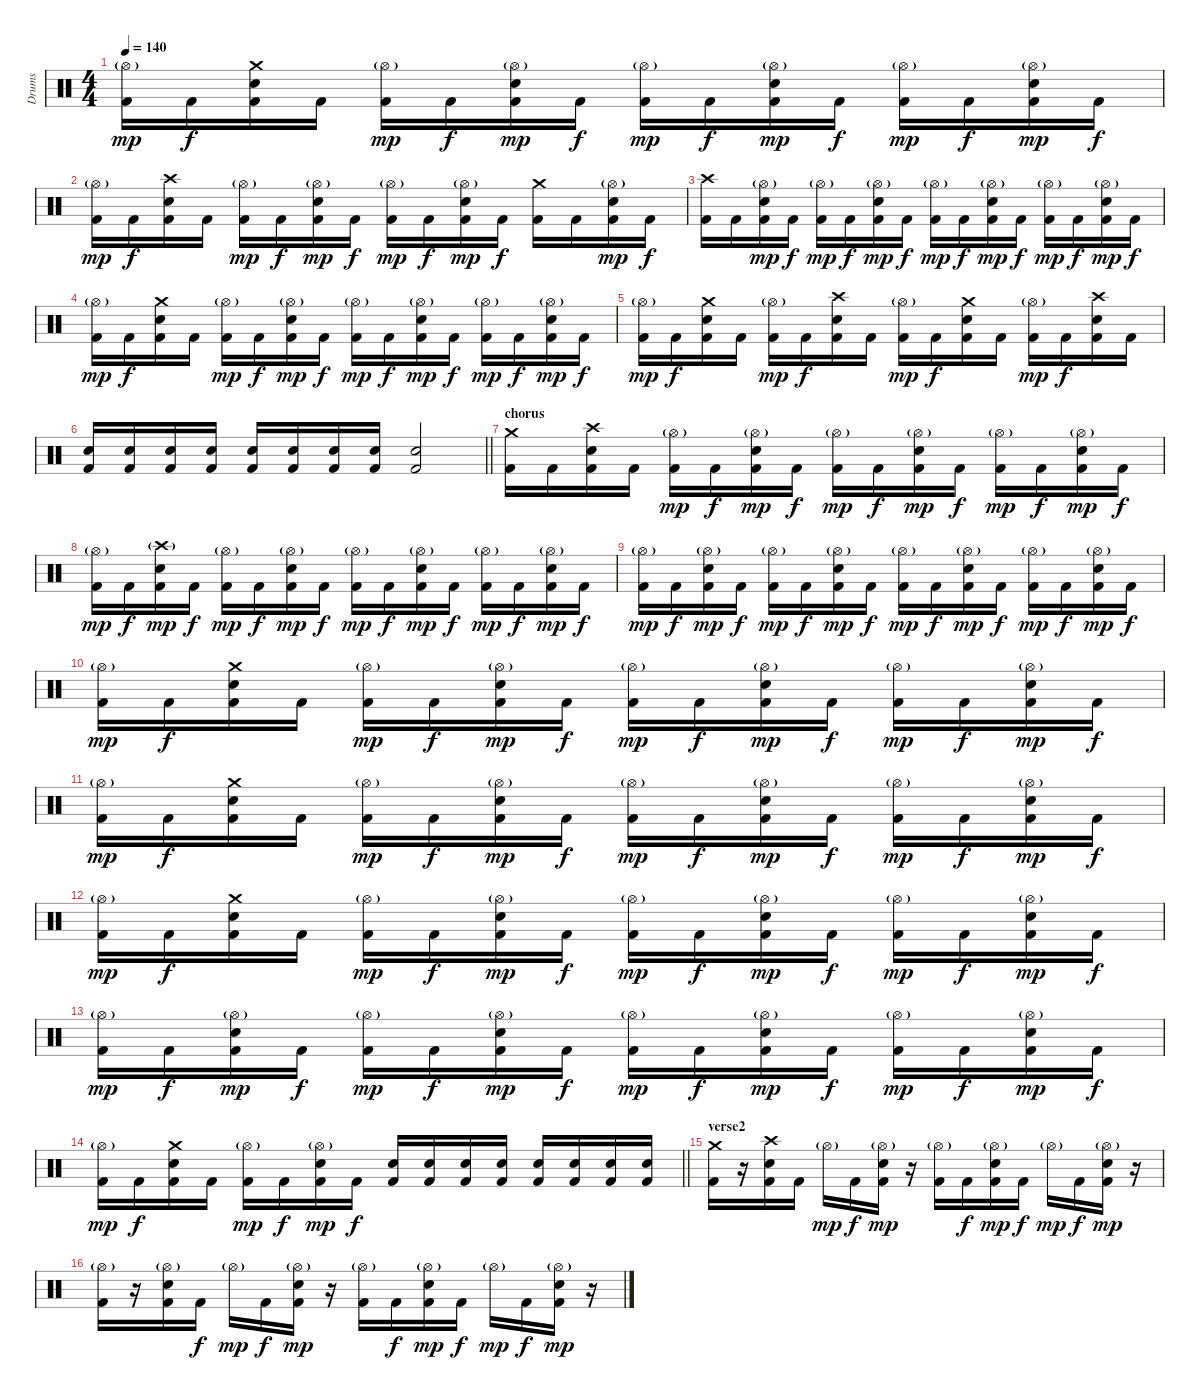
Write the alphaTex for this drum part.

\track ("Drums" "Drums") {instrument percussion}
\staff {score}
\articulation defaults
\ts (4 4)
\tempo 140
\clef neutral
\ks c
("Hi-Hat (open)"{g} "Kick (hit) 2").16{dy mp} "Kick (hit) 2".16{dy f} ("Crash medium (hit)" "Electric Snare (hit)" "Kick (hit) 2").16 "Kick (hit) 2".16 ("Hi-Hat (open)"{g} "Kick (hit) 2").16{dy mp} "Kick (hit) 2".16{dy f} ("Hi-Hat (open)"{g} "Electric Snare (hit)" "Kick (hit) 2").16{dy mp} "Kick (hit) 2".16{dy f} ("Hi-Hat (open)"{g} "Kick (hit) 2").16{dy mp} "Kick (hit) 2".16{dy f} ("Hi-Hat (open)"{g} "Electric Snare (hit)" "Kick (hit) 2").16{dy mp} "Kick (hit) 2".16{dy f} ("Hi-Hat (open)"{g} "Kick (hit) 2").16{dy mp} "Kick (hit) 2".16{dy f} ("Hi-Hat (open)"{g} "Electric Snare (hit)" "Kick (hit) 2").16{dy mp} "Kick (hit) 2".16{dy f} |
("Hi-Hat (open)"{g} "Kick (hit) 2").16{dy mp} "Kick (hit) 2".16{dy f} ("Crash high (hit)" "Electric Snare (hit)" "Kick (hit) 2").16 "Kick (hit) 2".16 ("Hi-Hat (open)"{g} "Kick (hit) 2").16{dy mp} "Kick (hit) 2".16{dy f} ("Hi-Hat (open)"{g} "Electric Snare (hit)" "Kick (hit) 2").16{dy mp} "Kick (hit) 2".16{dy f} ("Hi-Hat (open)"{g} "Kick (hit) 2").16{dy mp} "Kick (hit) 2".16{dy f} ("Hi-Hat (open)"{g} "Electric Snare (hit)" "Kick (hit) 2").16{dy mp} "Kick (hit) 2".16{dy f} ("Crash medium (hit)" "Kick (hit) 2").16 "Kick (hit) 2".16 ("Hi-Hat (open)"{g} "Electric Snare (hit)" "Kick (hit) 2").16{dy mp} "Kick (hit) 2".16{dy f} |
("Crash high (hit)" "Kick (hit) 2").16 "Kick (hit) 2".16 ("Hi-Hat (open)"{g} "Electric Snare (hit)" "Kick (hit) 2").16{dy mp} "Kick (hit) 2".16{dy f} ("Hi-Hat (open)"{g} "Kick (hit) 2").16{dy mp} "Kick (hit) 2".16{dy f} ("Hi-Hat (open)"{g} "Electric Snare (hit)" "Kick (hit) 2").16{dy mp} "Kick (hit) 2".16{dy f} ("Hi-Hat (open)"{g} "Kick (hit) 2").16{dy mp} "Kick (hit) 2".16{dy f} ("Hi-Hat (open)"{g} "Electric Snare (hit)" "Kick (hit) 2").16{dy mp} "Kick (hit) 2".16{dy f} ("Hi-Hat (open)"{g} "Kick (hit) 2").16{dy mp} "Kick (hit) 2".16{dy f} ("Hi-Hat (open)"{g} "Electric Snare (hit)" "Kick (hit) 2").16{dy mp} "Kick (hit) 2".16{dy f} |
("Hi-Hat (open)"{g} "Kick (hit) 2").16{dy mp} "Kick (hit) 2".16{dy f} ("Crash medium (hit)" "Electric Snare (hit)" "Kick (hit) 2").16 "Kick (hit) 2".16 ("Hi-Hat (open)"{g} "Kick (hit) 2").16{dy mp} "Kick (hit) 2".16{dy f} ("Hi-Hat (open)"{g} "Electric Snare (hit)" "Kick (hit) 2").16{dy mp} "Kick (hit) 2".16{dy f} ("Hi-Hat (open)"{g} "Kick (hit) 2").16{dy mp} "Kick (hit) 2".16{dy f} ("Hi-Hat (open)"{g} "Electric Snare (hit)" "Kick (hit) 2").16{dy mp} "Kick (hit) 2".16{dy f} ("Hi-Hat (open)"{g} "Kick (hit) 2").16{dy mp} "Kick (hit) 2".16{dy f} ("Hi-Hat (open)"{g} "Electric Snare (hit)" "Kick (hit) 2").16{dy mp} "Kick (hit) 2".16{dy f} |
("Hi-Hat (open)"{g} "Kick (hit) 2").16{dy mp} "Kick (hit) 2".16{dy f} ("Crash medium (hit)" "Electric Snare (hit)" "Kick (hit) 2").16 "Kick (hit) 2".16 ("Hi-Hat (open)"{g} "Kick (hit) 2").16{dy mp} "Kick (hit) 2".16{dy f} ("Crash high (hit)" "Electric Snare (hit)" "Kick (hit) 2").16 "Kick (hit) 2".16 ("Hi-Hat (open)"{g} "Kick (hit) 2").16{dy mp} "Kick (hit) 2".16{dy f} ("Crash medium (hit)" "Electric Snare (hit)" "Kick (hit) 2").16 "Kick (hit) 2".16 ("Hi-Hat (open)"{g} "Kick (hit) 2").16{dy mp} "Kick (hit) 2".16{dy f} ("Crash high (hit)" "Electric Snare (hit)" "Kick (hit) 2").16 "Kick (hit) 2".16 |
\barLineRight lightlight
("Electric Snare (hit)" "Kick (hit) 2").16 ("Electric Snare (hit)" "Kick (hit) 2").16 ("Electric Snare (hit)" "Kick (hit) 2").16 ("Electric Snare (hit)" "Kick (hit) 2").16 ("Electric Snare (hit)" "Kick (hit) 2").16 ("Electric Snare (hit)" "Kick (hit) 2").16 ("Electric Snare (hit)" "Kick (hit) 2").16 ("Electric Snare (hit)" "Kick (hit) 2").16 ("Electric Snare (hit)" "Kick (hit) 2").2 |
\section ("" "chorus")
("Crash medium (hit)" "Kick (hit) 2").16 "Kick (hit) 2".16 ("Crash high (hit)" "Electric Snare (hit)" "Kick (hit) 2").16 "Kick (hit) 2".16 ("Hi-Hat (open)"{g} "Kick (hit) 2").16{dy mp} "Kick (hit) 2".16{dy f} ("Hi-Hat (open)"{g} "Electric Snare (hit)" "Kick (hit) 2").16{dy mp} "Kick (hit) 2".16{dy f} ("Hi-Hat (open)"{g} "Kick (hit) 2").16{dy mp} "Kick (hit) 2".16{dy f} ("Hi-Hat (open)"{g} "Electric Snare (hit)" "Kick (hit) 2").16{dy mp} "Kick (hit) 2".16{dy f} ("Hi-Hat (open)"{g} "Kick (hit) 2").16{dy mp} "Kick (hit) 2".16{dy f} ("Hi-Hat (open)"{g} "Electric Snare (hit)" "Kick (hit) 2").16{dy mp} "Kick (hit) 2".16{dy f} |
("Hi-Hat (open)"{g} "Kick (hit) 2").16{dy mp} "Kick (hit) 2".16{dy f} ("Crash high (hit)"{g} "Electric Snare (hit)" "Kick (hit) 2").16{dy mp} "Kick (hit) 2".16{dy f} ("Hi-Hat (open)"{g} "Kick (hit) 2").16{dy mp} "Kick (hit) 2".16{dy f} ("Hi-Hat (open)"{g} "Electric Snare (hit)" "Kick (hit) 2").16{dy mp} "Kick (hit) 2".16{dy f} ("Hi-Hat (open)"{g} "Kick (hit) 2").16{dy mp} "Kick (hit) 2".16{dy f} ("Hi-Hat (open)"{g} "Electric Snare (hit)" "Kick (hit) 2").16{dy mp} "Kick (hit) 2".16{dy f} ("Hi-Hat (open)"{g} "Kick (hit) 2").16{dy mp} "Kick (hit) 2".16{dy f} ("Hi-Hat (open)"{g} "Electric Snare (hit)" "Kick (hit) 2").16{dy mp} "Kick (hit) 2".16{dy f} |
("Hi-Hat (open)"{g} "Kick (hit) 2").16{dy mp} "Kick (hit) 2".16{dy f} ("Hi-Hat (open)"{g} "Electric Snare (hit)" "Kick (hit) 2").16{dy mp} "Kick (hit) 2".16{dy f} ("Hi-Hat (open)"{g} "Kick (hit) 2").16{dy mp} "Kick (hit) 2".16{dy f} ("Hi-Hat (open)"{g} "Electric Snare (hit)" "Kick (hit) 2").16{dy mp} "Kick (hit) 2".16{dy f} ("Hi-Hat (open)"{g} "Kick (hit) 2").16{dy mp} "Kick (hit) 2".16{dy f} ("Hi-Hat (open)"{g} "Electric Snare (hit)" "Kick (hit) 2").16{dy mp} "Kick (hit) 2".16{dy f} ("Hi-Hat (open)"{g} "Kick (hit) 2").16{dy mp} "Kick (hit) 2".16{dy f} ("Hi-Hat (open)"{g} "Electric Snare (hit)" "Kick (hit) 2").16{dy mp} "Kick (hit) 2".16{dy f} |
("Hi-Hat (open)"{g} "Kick (hit) 2").16{dy mp} "Kick (hit) 2".16{dy f} ("Crash medium (hit)" "Electric Snare (hit)" "Kick (hit) 2").16 "Kick (hit) 2".16 ("Hi-Hat (open)"{g} "Kick (hit) 2").16{dy mp} "Kick (hit) 2".16{dy f} ("Hi-Hat (open)"{g} "Electric Snare (hit)" "Kick (hit) 2").16{dy mp} "Kick (hit) 2".16{dy f} ("Hi-Hat (open)"{g} "Kick (hit) 2").16{dy mp} "Kick (hit) 2".16{dy f} ("Hi-Hat (open)"{g} "Electric Snare (hit)" "Kick (hit) 2").16{dy mp} "Kick (hit) 2".16{dy f} ("Hi-Hat (open)"{g} "Kick (hit) 2").16{dy mp} "Kick (hit) 2".16{dy f} ("Hi-Hat (open)"{g} "Electric Snare (hit)" "Kick (hit) 2").16{dy mp} "Kick (hit) 2".16{dy f} |
("Hi-Hat (open)"{g} "Kick (hit) 2").16{dy mp} "Kick (hit) 2".16{dy f} ("Crash medium (hit)" "Electric Snare (hit)" "Kick (hit) 2").16 "Kick (hit) 2".16 ("Hi-Hat (open)"{g} "Kick (hit) 2").16{dy mp} "Kick (hit) 2".16{dy f} ("Hi-Hat (open)"{g} "Electric Snare (hit)" "Kick (hit) 2").16{dy mp} "Kick (hit) 2".16{dy f} ("Hi-Hat (open)"{g} "Kick (hit) 2").16{dy mp} "Kick (hit) 2".16{dy f} ("Hi-Hat (open)"{g} "Electric Snare (hit)" "Kick (hit) 2").16{dy mp} "Kick (hit) 2".16{dy f} ("Hi-Hat (open)"{g} "Kick (hit) 2").16{dy mp} "Kick (hit) 2".16{dy f} ("Hi-Hat (open)"{g} "Electric Snare (hit)" "Kick (hit) 2").16{dy mp} "Kick (hit) 2".16{dy f} |
("Hi-Hat (open)"{g} "Kick (hit) 2").16{dy mp} "Kick (hit) 2".16{dy f} ("Crash medium (hit)" "Electric Snare (hit)" "Kick (hit) 2").16 "Kick (hit) 2".16 ("Hi-Hat (open)"{g} "Kick (hit) 2").16{dy mp} "Kick (hit) 2".16{dy f} ("Hi-Hat (open)"{g} "Electric Snare (hit)" "Kick (hit) 2").16{dy mp} "Kick (hit) 2".16{dy f} ("Hi-Hat (open)"{g} "Kick (hit) 2").16{dy mp} "Kick (hit) 2".16{dy f} ("Hi-Hat (open)"{g} "Electric Snare (hit)" "Kick (hit) 2").16{dy mp} "Kick (hit) 2".16{dy f} ("Hi-Hat (open)"{g} "Kick (hit) 2").16{dy mp} "Kick (hit) 2".16{dy f} ("Hi-Hat (open)"{g} "Electric Snare (hit)" "Kick (hit) 2").16{dy mp} "Kick (hit) 2".16{dy f} |
("Hi-Hat (open)"{g} "Kick (hit) 2").16{dy mp} "Kick (hit) 2".16{dy f} ("Hi-Hat (open)"{g} "Electric Snare (hit)" "Kick (hit) 2").16{dy mp} "Kick (hit) 2".16{dy f} ("Hi-Hat (open)"{g} "Kick (hit) 2").16{dy mp} "Kick (hit) 2".16{dy f} ("Hi-Hat (open)"{g} "Electric Snare (hit)" "Kick (hit) 2").16{dy mp} "Kick (hit) 2".16{dy f} ("Hi-Hat (open)"{g} "Kick (hit) 2").16{dy mp} "Kick (hit) 2".16{dy f} ("Hi-Hat (open)"{g} "Electric Snare (hit)" "Kick (hit) 2").16{dy mp} "Kick (hit) 2".16{dy f} ("Hi-Hat (open)"{g} "Kick (hit) 2").16{dy mp} "Kick (hit) 2".16{dy f} ("Hi-Hat (open)"{g} "Electric Snare (hit)" "Kick (hit) 2").16{dy mp} "Kick (hit) 2".16{dy f} |
\barLineRight lightlight
("Hi-Hat (open)"{g} "Kick (hit) 2").16{dy mp} "Kick (hit) 2".16{dy f} ("Crash medium (hit)" "Electric Snare (hit)" "Kick (hit) 2").16 "Kick (hit) 2".16 ("Hi-Hat (open)"{g} "Kick (hit) 2").16{dy mp} "Kick (hit) 2".16{dy f} ("Hi-Hat (open)"{g} "Electric Snare (hit)" "Kick (hit) 2").16{dy mp} "Kick (hit) 2".16{dy f} ("Electric Snare (hit)" "Kick (hit) 2").16 ("Electric Snare (hit)" "Kick (hit) 2").16 ("Electric Snare (hit)" "Kick (hit) 2").16 ("Electric Snare (hit)" "Kick (hit) 2").16 ("Electric Snare (hit)" "Kick (hit) 2").16 ("Electric Snare (hit)" "Kick (hit) 2").16 ("Electric Snare (hit)" "Kick (hit) 2").16 ("Electric Snare (hit)" "Kick (hit) 2").16 |
\section ("" "verse2")
("Crash medium (hit)" "Kick (hit) 2").16 r.16 ("Crash high (hit)" "Electric Snare (hit)" "Kick (hit) 2").16 "Kick (hit) 2".16 "Hi-Hat (open)"{g}.16{dy mp} "Kick (hit) 2".16{dy f} ("Hi-Hat (open)"{g} "Electric Snare (hit)" "Kick (hit) 2").16{dy mp} r.16 ("Hi-Hat (open)"{g} "Kick (hit) 2").16 "Kick (hit) 2".16{dy f} ("Hi-Hat (open)"{g} "Electric Snare (hit)" "Kick (hit) 2").16{dy mp} "Kick (hit) 2".16{dy f} "Hi-Hat (open)"{g}.16{dy mp} "Kick (hit) 2".16{dy f} ("Hi-Hat (open)"{g} "Electric Snare (hit)" "Kick (hit) 2").16{dy mp} r.16 |
("Hi-Hat (open)"{g} "Kick (hit) 2").16 r.16 ("Hi-Hat (open)"{g} "Electric Snare (hit)" "Kick (hit) 2").16 "Kick (hit) 2".16{dy f} "Hi-Hat (open)"{g}.16{dy mp} "Kick (hit) 2".16{dy f} ("Hi-Hat (open)"{g} "Electric Snare (hit)" "Kick (hit) 2").16{dy mp} r.16 ("Hi-Hat (open)"{g} "Kick (hit) 2").16 "Kick (hit) 2".16{dy f} ("Hi-Hat (open)"{g} "Electric Snare (hit)" "Kick (hit) 2").16{dy mp} "Kick (hit) 2".16{dy f} "Hi-Hat (open)"{g}.16{dy mp} "Kick (hit) 2".16{dy f} ("Hi-Hat (open)"{g} "Electric Snare (hit)" "Kick (hit) 2").16{dy mp} r.16
